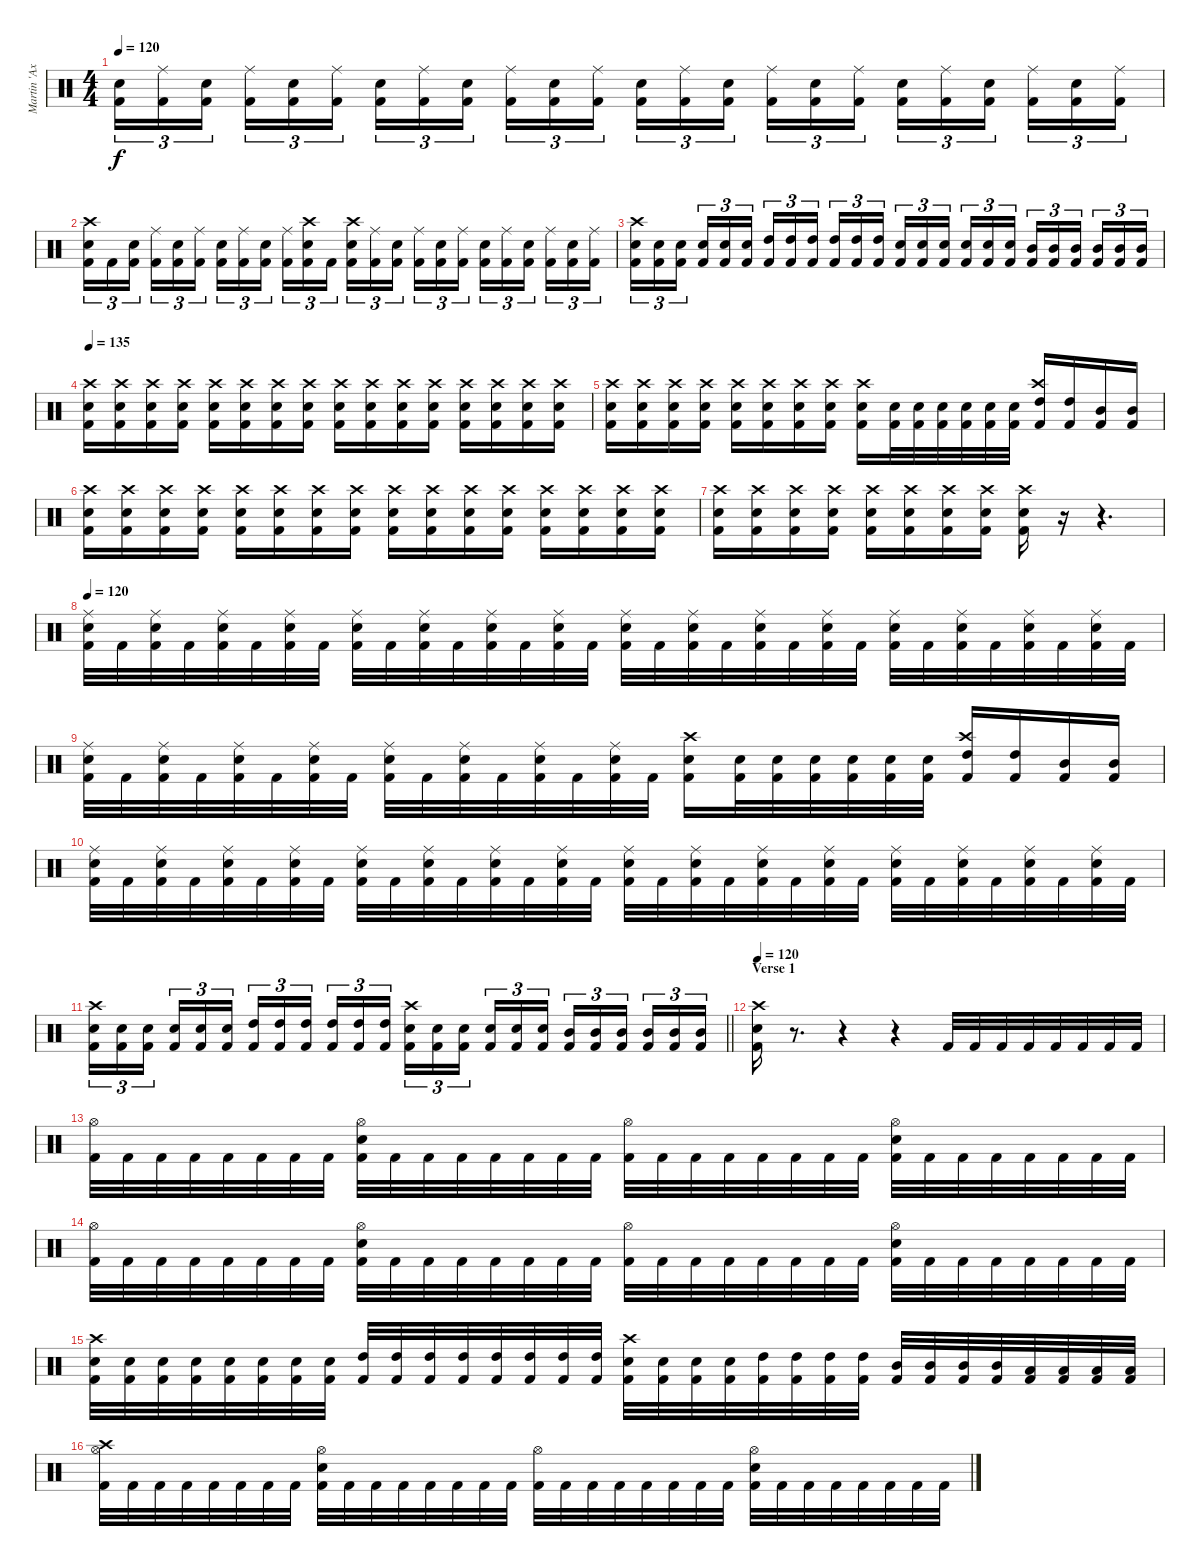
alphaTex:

\track ("Martin 'Axe' Axenrot" "Martin 'Ax") {instrument percussion}
\staff {score}
\articulation defaults
\ts (4 4)
\tempo 120
\clef neutral
\ks c
("Snare (hit) 2" "Kick (hit) 2").16{tu (3 2) dy f} ("Ride (middle)" "Kick (hit) 2").16{tu (3 2)} ("Snare (hit) 2" "Kick (hit) 2").16{tu (3 2) beam splitsecondary} ("Ride (middle)" "Kick (hit) 2").16{tu (3 2)} ("Snare (hit) 2" "Kick (hit) 2").16{tu (3 2)} ("Ride (middle)" "Kick (hit) 2").16{tu (3 2)} ("Snare (hit) 2" "Kick (hit) 2").16{tu (3 2)} ("Ride (middle)" "Kick (hit) 2").16{tu (3 2)} ("Snare (hit) 2" "Kick (hit) 2").16{tu (3 2) beam splitsecondary} ("Ride (middle)" "Kick (hit) 2").16{tu (3 2)} ("Snare (hit) 2" "Kick (hit) 2").16{tu (3 2)} ("Ride (middle)" "Kick (hit) 2").16{tu (3 2)} ("Snare (hit) 2" "Kick (hit) 2").16{tu (3 2)} ("Ride (middle)" "Kick (hit) 2").16{tu (3 2)} ("Snare (hit) 2" "Kick (hit) 2").16{tu (3 2) beam splitsecondary} ("Ride (middle)" "Kick (hit) 2").16{tu (3 2)} ("Snare (hit) 2" "Kick (hit) 2").16{tu (3 2)} ("Ride (middle)" "Kick (hit) 2").16{tu (3 2)} ("Snare (hit) 2" "Kick (hit) 2").16{tu (3 2)} ("Ride (middle)" "Kick (hit) 2").16{tu (3 2)} ("Snare (hit) 2" "Kick (hit) 2").16{tu (3 2) beam splitsecondary} ("Ride (middle)" "Kick (hit) 2").16{tu (3 2)} ("Snare (hit) 2" "Kick (hit) 2").16{tu (3 2)} ("Ride (middle)" "Kick (hit) 2").16{tu (3 2)} |
("Crash high (hit)" "Snare (hit) 2" "Kick (hit) 2").16{tu (3 2)} "Kick (hit) 2".16{tu (3 2)} ("Snare (hit) 2" "Kick (hit) 2").16{tu (3 2) beam splitsecondary} ("Ride (middle)" "Kick (hit) 2").16{tu (3 2)} ("Snare (hit) 2" "Kick (hit) 2").16{tu (3 2)} ("Ride (middle)" "Kick (hit) 2").16{tu (3 2)} ("Snare (hit) 2" "Kick (hit) 2").16{tu (3 2)} ("Ride (middle)" "Kick (hit) 2").16{tu (3 2)} ("Snare (hit) 2" "Kick (hit) 2").16{tu (3 2) beam splitsecondary} ("Ride (middle)" "Kick (hit) 2").16{tu (3 2)} ("Crash high (hit)" "Snare (hit) 2" "Kick (hit) 2").16{tu (3 2)} "Kick (hit) 2".16{tu (3 2)} ("Crash high (hit)" "Snare (hit) 2" "Kick (hit) 2").16{tu (3 2)} ("Ride (middle)" "Kick (hit) 2").16{tu (3 2)} ("Snare (hit) 2" "Kick (hit) 2").16{tu (3 2) beam splitsecondary} ("Ride (middle)" "Kick (hit) 2").16{tu (3 2)} ("Snare (hit) 2" "Kick (hit) 2").16{tu (3 2)} ("Ride (middle)" "Kick (hit) 2").16{tu (3 2)} ("Snare (hit) 2" "Kick (hit) 2").16{tu (3 2)} ("Ride (middle)" "Kick (hit) 2").16{tu (3 2)} ("Snare (hit) 2" "Kick (hit) 2").16{tu (3 2) beam splitsecondary} ("Ride (middle)" "Kick (hit) 2").16{tu (3 2)} ("Snare (hit) 2" "Kick (hit) 2").16{tu (3 2)} ("Ride (middle)" "Kick (hit) 2").16{tu (3 2)} |
("Crash high (hit)" "Snare (hit) 2" "Kick (hit) 2").16{tu (3 2)} ("Snare (hit) 2" "Kick (hit) 2").16{tu (3 2)} ("Snare (hit) 2" "Kick (hit) 2").16{tu (3 2) beam splitsecondary} ("Snare (hit) 2" "Kick (hit) 2").16{tu (3 2)} ("Snare (hit) 2" "Kick (hit) 2").16{tu (3 2)} ("Snare (hit) 2" "Kick (hit) 2").16{tu (3 2)} ("High Tom (hit)" "Kick (hit) 2").16{tu (3 2)} ("High Tom (hit)" "Kick (hit) 2").16{tu (3 2)} ("High Tom (hit)" "Kick (hit) 2").16{tu (3 2) beam splitsecondary} ("High Tom (hit)" "Kick (hit) 2").16{tu (3 2)} ("High Tom (hit)" "Kick (hit) 2").16{tu (3 2)} ("High Tom (hit)" "Kick (hit) 2").16{tu (3 2)} ("Snare (hit) 2" "Kick (hit) 2").16{tu (3 2)} ("Snare (hit) 2" "Kick (hit) 2").16{tu (3 2)} ("Snare (hit) 2" "Kick (hit) 2").16{tu (3 2) beam splitsecondary} ("Snare (hit) 2" "Kick (hit) 2").16{tu (3 2)} ("Snare (hit) 2" "Kick (hit) 2").16{tu (3 2)} ("Snare (hit) 2" "Kick (hit) 2").16{tu (3 2)} ("Mid Tom (hit)" "Kick (hit) 2").16{tu (3 2)} ("Mid Tom (hit)" "Kick (hit) 2").16{tu (3 2)} ("Mid Tom (hit)" "Kick (hit) 2").16{tu (3 2) beam splitsecondary} ("Mid Tom (hit)" "Kick (hit) 2").16{tu (3 2)} ("Mid Tom (hit)" "Kick (hit) 2").16{tu (3 2)} ("Mid Tom (hit)" "Kick (hit) 2").16{tu (3 2)} |
\tempo 135
("Crash high (hit)" "Snare (hit) 2" "Kick (hit) 2").16 ("Crash high (hit)" "Snare (hit) 2" "Kick (hit) 2").16 ("Crash high (hit)" "Snare (hit) 2" "Kick (hit) 2").16 ("Crash high (hit)" "Snare (hit) 2" "Kick (hit) 2").16 ("Crash high (hit)" "Snare (hit) 2" "Kick (hit) 2").16 ("Crash high (hit)" "Snare (hit) 2" "Kick (hit) 2").16 ("Crash high (hit)" "Snare (hit) 2" "Kick (hit) 2").16 ("Crash high (hit)" "Snare (hit) 2" "Kick (hit) 2").16 ("Crash high (hit)" "Snare (hit) 2" "Kick (hit) 2").16 ("Crash high (hit)" "Snare (hit) 2" "Kick (hit) 2").16 ("Crash high (hit)" "Snare (hit) 2" "Kick (hit) 2").16 ("Crash high (hit)" "Snare (hit) 2" "Kick (hit) 2").16 ("Crash high (hit)" "Snare (hit) 2" "Kick (hit) 2").16 ("Crash high (hit)" "Snare (hit) 2" "Kick (hit) 2").16 ("Crash high (hit)" "Snare (hit) 2" "Kick (hit) 2").16 ("Crash high (hit)" "Snare (hit) 2" "Kick (hit) 2").16 |
("Crash high (hit)" "Snare (hit) 2" "Kick (hit) 2").16 ("Crash high (hit)" "Snare (hit) 2" "Kick (hit) 2").16 ("Crash high (hit)" "Snare (hit) 2" "Kick (hit) 2").16 ("Crash high (hit)" "Snare (hit) 2" "Kick (hit) 2").16 ("Crash high (hit)" "Snare (hit) 2" "Kick (hit) 2").16 ("Crash high (hit)" "Snare (hit) 2" "Kick (hit) 2").16 ("Crash high (hit)" "Snare (hit) 2" "Kick (hit) 2").16 ("Crash high (hit)" "Snare (hit) 2" "Kick (hit) 2").16 ("Crash high (hit)" "Snare (hit) 2" "Kick (hit) 2").16 ("Snare (hit) 2" "Kick (hit) 2").32 ("Snare (hit) 2" "Kick (hit) 2").32 ("Snare (hit) 2" "Kick (hit) 2").32 ("Snare (hit) 2" "Kick (hit) 2").32 ("Snare (hit) 2" "Kick (hit) 2").32 ("Snare (hit) 2" "Kick (hit) 2").32 ("Crash high (hit)" "High Tom (hit)" "Kick (hit) 2").16 ("High Tom (hit)" "Kick (hit) 2").16 ("Mid Tom (hit)" "Kick (hit) 2").16 ("Mid Tom (hit)" "Kick (hit) 2").16 |
("Crash high (hit)" "Snare (hit) 2" "Kick (hit) 2").16 ("Crash high (hit)" "Snare (hit) 2" "Kick (hit) 2").16 ("Crash high (hit)" "Snare (hit) 2" "Kick (hit) 2").16 ("Crash high (hit)" "Snare (hit) 2" "Kick (hit) 2").16 ("Crash high (hit)" "Snare (hit) 2" "Kick (hit) 2").16 ("Crash high (hit)" "Snare (hit) 2" "Kick (hit) 2").16 ("Crash high (hit)" "Snare (hit) 2" "Kick (hit) 2").16 ("Crash high (hit)" "Snare (hit) 2" "Kick (hit) 2").16 ("Crash high (hit)" "Snare (hit) 2" "Kick (hit) 2").16 ("Crash high (hit)" "Snare (hit) 2" "Kick (hit) 2").16 ("Crash high (hit)" "Snare (hit) 2" "Kick (hit) 2").16 ("Crash high (hit)" "Snare (hit) 2" "Kick (hit) 2").16 ("Crash high (hit)" "Snare (hit) 2" "Kick (hit) 2").16 ("Crash high (hit)" "Snare (hit) 2" "Kick (hit) 2").16 ("Crash high (hit)" "Snare (hit) 2" "Kick (hit) 2").16 ("Crash high (hit)" "Snare (hit) 2" "Kick (hit) 2").16 |
("Crash high (hit)" "Snare (hit) 2" "Kick (hit) 2").16 ("Crash high (hit)" "Snare (hit) 2" "Kick (hit) 2").16 ("Crash high (hit)" "Snare (hit) 2" "Kick (hit) 2").16 ("Crash high (hit)" "Snare (hit) 2" "Kick (hit) 2").16 ("Crash high (hit)" "Snare (hit) 2" "Kick (hit) 2").16 ("Crash high (hit)" "Snare (hit) 2" "Kick (hit) 2").16 ("Crash high (hit)" "Snare (hit) 2" "Kick (hit) 2").16 ("Crash high (hit)" "Snare (hit) 2" "Kick (hit) 2").16 ("Crash high (hit)" "Snare (hit) 2" "Kick (hit) 2").16 r.16 r.4{d} |
\tempo 120
("Ride (middle)" "Snare (hit) 2" "Kick (hit) 2").32 "Kick (hit) 2".32 ("Ride (middle)" "Snare (hit) 2" "Kick (hit) 2").32 "Kick (hit) 2".32 ("Ride (middle)" "Snare (hit) 2" "Kick (hit) 2").32 "Kick (hit) 2".32 ("Ride (middle)" "Snare (hit) 2" "Kick (hit) 2").32 "Kick (hit) 2".32 ("Ride (middle)" "Snare (hit) 2" "Kick (hit) 2").32 "Kick (hit) 2".32 ("Ride (middle)" "Snare (hit) 2" "Kick (hit) 2").32 "Kick (hit) 2".32 ("Ride (middle)" "Snare (hit) 2" "Kick (hit) 2").32 "Kick (hit) 2".32 ("Ride (middle)" "Snare (hit) 2" "Kick (hit) 2").32 "Kick (hit) 2".32 ("Ride (middle)" "Snare (hit) 2" "Kick (hit) 2").32 "Kick (hit) 2".32 ("Ride (middle)" "Snare (hit) 2" "Kick (hit) 2").32 "Kick (hit) 2".32 ("Ride (middle)" "Snare (hit) 2" "Kick (hit) 2").32 "Kick (hit) 2".32 ("Ride (middle)" "Snare (hit) 2" "Kick (hit) 2").32 "Kick (hit) 2".32 ("Ride (middle)" "Snare (hit) 2" "Kick (hit) 2").32 "Kick (hit) 2".32 ("Ride (middle)" "Snare (hit) 2" "Kick (hit) 2").32 "Kick (hit) 2".32 ("Ride (middle)" "Snare (hit) 2" "Kick (hit) 2").32 "Kick (hit) 2".32 ("Ride (middle)" "Snare (hit) 2" "Kick (hit) 2").32 "Kick (hit) 2".32 |
("Ride (middle)" "Snare (hit) 2" "Kick (hit) 2").32 "Kick (hit) 2".32 ("Ride (middle)" "Snare (hit) 2" "Kick (hit) 2").32 "Kick (hit) 2".32 ("Ride (middle)" "Snare (hit) 2" "Kick (hit) 2").32 "Kick (hit) 2".32 ("Ride (middle)" "Snare (hit) 2" "Kick (hit) 2").32 "Kick (hit) 2".32 ("Ride (middle)" "Snare (hit) 2" "Kick (hit) 2").32 "Kick (hit) 2".32 ("Ride (middle)" "Snare (hit) 2" "Kick (hit) 2").32 "Kick (hit) 2".32 ("Ride (middle)" "Snare (hit) 2" "Kick (hit) 2").32 "Kick (hit) 2".32 ("Ride (middle)" "Snare (hit) 2" "Kick (hit) 2").32 "Kick (hit) 2".32 ("Crash high (hit)" "Snare (hit) 2" "Kick (hit) 2").16 ("Snare (hit) 2" "Kick (hit) 2").32 ("Snare (hit) 2" "Kick (hit) 2").32 ("Snare (hit) 2" "Kick (hit) 2").32 ("Snare (hit) 2" "Kick (hit) 2").32 ("Snare (hit) 2" "Kick (hit) 2").32 ("Snare (hit) 2" "Kick (hit) 2").32 ("Crash high (hit)" "High Tom (hit)" "Kick (hit) 2").16 ("High Tom (hit)" "Kick (hit) 2").16 ("Mid Tom (hit)" "Kick (hit) 2").16 ("Mid Tom (hit)" "Kick (hit) 2").16 |
("Ride (middle)" "Snare (hit) 2" "Kick (hit) 2").32 "Kick (hit) 2".32 ("Ride (middle)" "Snare (hit) 2" "Kick (hit) 2").32 "Kick (hit) 2".32 ("Ride (middle)" "Snare (hit) 2" "Kick (hit) 2").32 "Kick (hit) 2".32 ("Ride (middle)" "Snare (hit) 2" "Kick (hit) 2").32 "Kick (hit) 2".32 ("Ride (middle)" "Snare (hit) 2" "Kick (hit) 2").32 "Kick (hit) 2".32 ("Ride (middle)" "Snare (hit) 2" "Kick (hit) 2").32 "Kick (hit) 2".32 ("Ride (middle)" "Snare (hit) 2" "Kick (hit) 2").32 "Kick (hit) 2".32 ("Ride (middle)" "Snare (hit) 2" "Kick (hit) 2").32 "Kick (hit) 2".32 ("Ride (middle)" "Snare (hit) 2" "Kick (hit) 2").32 "Kick (hit) 2".32 ("Ride (middle)" "Snare (hit) 2" "Kick (hit) 2").32 "Kick (hit) 2".32 ("Ride (middle)" "Snare (hit) 2" "Kick (hit) 2").32 "Kick (hit) 2".32 ("Ride (middle)" "Snare (hit) 2" "Kick (hit) 2").32 "Kick (hit) 2".32 ("Ride (middle)" "Snare (hit) 2" "Kick (hit) 2").32 "Kick (hit) 2".32 ("Ride (middle)" "Snare (hit) 2" "Kick (hit) 2").32 "Kick (hit) 2".32 ("Ride (middle)" "Snare (hit) 2" "Kick (hit) 2").32 "Kick (hit) 2".32 ("Ride (middle)" "Snare (hit) 2" "Kick (hit) 2").32 "Kick (hit) 2".32 |
\barLineRight lightlight
("Crash high (hit)" "Snare (hit) 2" "Kick (hit) 2").16{tu (3 2)} ("Snare (hit) 2" "Kick (hit) 2").16{tu (3 2)} ("Snare (hit) 2" "Kick (hit) 2").16{tu (3 2) beam splitsecondary} ("Snare (hit) 2" "Kick (hit) 2").16{tu (3 2)} ("Snare (hit) 2" "Kick (hit) 2").16{tu (3 2)} ("Snare (hit) 2" "Kick (hit) 2").16{tu (3 2)} ("High Tom (hit)" "Kick (hit) 2").16{tu (3 2)} ("High Tom (hit)" "Kick (hit) 2").16{tu (3 2)} ("High Tom (hit)" "Kick (hit) 2").16{tu (3 2) beam splitsecondary} ("High Tom (hit)" "Kick (hit) 2").16{tu (3 2)} ("High Tom (hit)" "Kick (hit) 2").16{tu (3 2)} ("High Tom (hit)" "Kick (hit) 2").16{tu (3 2)} ("Crash high (hit)" "Snare (hit) 2" "Kick (hit) 2").16{tu (3 2)} ("Snare (hit) 2" "Kick (hit) 2").16{tu (3 2)} ("Snare (hit) 2" "Kick (hit) 2").16{tu (3 2) beam splitsecondary} ("Snare (hit) 2" "Kick (hit) 2").16{tu (3 2)} ("Snare (hit) 2" "Kick (hit) 2").16{tu (3 2)} ("Snare (hit) 2" "Kick (hit) 2").16{tu (3 2)} ("Mid Tom (hit)" "Kick (hit) 2").16{tu (3 2)} ("Mid Tom (hit)" "Kick (hit) 2").16{tu (3 2)} ("Mid Tom (hit)" "Kick (hit) 2").16{tu (3 2) beam splitsecondary} ("Mid Tom (hit)" "Kick (hit) 2").16{tu (3 2)} ("Mid Tom (hit)" "Kick (hit) 2").16{tu (3 2)} ("Mid Tom (hit)" "Kick (hit) 2").16{tu (3 2)} |
\section ("" "Verse 1")
\tempo 120
("Crash high (hit)" "Snare (hit) 2" "Kick (hit) 2").16 r.8{d} r.4 r.4 "Kick (hit) 2".32 "Kick (hit) 2".32 "Kick (hit) 2".32 "Kick (hit) 2".32 "Kick (hit) 2".32 "Kick (hit) 2".32 "Kick (hit) 2".32 "Kick (hit) 2".32 |
("Hi-Hat (open)" "Kick (hit) 2").32 "Kick (hit) 2".32 "Kick (hit) 2".32 "Kick (hit) 2".32 "Kick (hit) 2".32 "Kick (hit) 2".32 "Kick (hit) 2".32 "Kick (hit) 2".32 ("Snare (hit) 2" "Hi-Hat (open)" "Kick (hit) 2").32 "Kick (hit) 2".32 "Kick (hit) 2".32 "Kick (hit) 2".32 "Kick (hit) 2".32 "Kick (hit) 2".32 "Kick (hit) 2".32 "Kick (hit) 2".32 ("Hi-Hat (open)" "Kick (hit) 2").32 "Kick (hit) 2".32 "Kick (hit) 2".32 "Kick (hit) 2".32 "Kick (hit) 2".32 "Kick (hit) 2".32 "Kick (hit) 2".32 "Kick (hit) 2".32 ("Snare (hit) 2" "Hi-Hat (open)" "Kick (hit) 2").32 "Kick (hit) 2".32 "Kick (hit) 2".32 "Kick (hit) 2".32 "Kick (hit) 2".32 "Kick (hit) 2".32 "Kick (hit) 2".32 "Kick (hit) 2".32 |
("Hi-Hat (open)" "Kick (hit) 2").32 "Kick (hit) 2".32 "Kick (hit) 2".32 "Kick (hit) 2".32 "Kick (hit) 2".32 "Kick (hit) 2".32 "Kick (hit) 2".32 "Kick (hit) 2".32 ("Snare (hit) 2" "Hi-Hat (open)" "Kick (hit) 2").32 "Kick (hit) 2".32 "Kick (hit) 2".32 "Kick (hit) 2".32 "Kick (hit) 2".32 "Kick (hit) 2".32 "Kick (hit) 2".32 "Kick (hit) 2".32 ("Hi-Hat (open)" "Kick (hit) 2").32 "Kick (hit) 2".32 "Kick (hit) 2".32 "Kick (hit) 2".32 "Kick (hit) 2".32 "Kick (hit) 2".32 "Kick (hit) 2".32 "Kick (hit) 2".32 ("Snare (hit) 2" "Hi-Hat (open)" "Kick (hit) 2").32 "Kick (hit) 2".32 "Kick (hit) 2".32 "Kick (hit) 2".32 "Kick (hit) 2".32 "Kick (hit) 2".32 "Kick (hit) 2".32 "Kick (hit) 2".32 |
("Crash high (hit)" "Snare (hit) 2" "Kick (hit) 2").32 ("Snare (hit) 2" "Kick (hit) 2").32 ("Snare (hit) 2" "Kick (hit) 2").32 ("Snare (hit) 2" "Kick (hit) 2").32 ("Snare (hit) 2" "Kick (hit) 2").32 ("Snare (hit) 2" "Kick (hit) 2").32 ("Snare (hit) 2" "Kick (hit) 2").32 ("Snare (hit) 2" "Kick (hit) 2").32 ("High Tom (hit)" "Kick (hit) 2").32 ("High Tom (hit)" "Kick (hit) 2").32 ("High Tom (hit)" "Kick (hit) 2").32 ("High Tom (hit)" "Kick (hit) 2").32 ("High Tom (hit)" "Kick (hit) 2").32 ("High Tom (hit)" "Kick (hit) 2").32 ("High Tom (hit)" "Kick (hit) 2").32 ("High Tom (hit)" "Kick (hit) 2").32 ("Crash high (hit)" "Snare (hit) 2" "Kick (hit) 2").32 ("Snare (hit) 2" "Kick (hit) 2").32 ("Snare (hit) 2" "Kick (hit) 2").32 ("Snare (hit) 2" "Kick (hit) 2").32 ("High Tom (hit)" "Kick (hit) 2").32 ("High Tom (hit)" "Kick (hit) 2").32 ("High Tom (hit)" "Kick (hit) 2").32 ("High Tom (hit)" "Kick (hit) 2").32 ("Mid Tom (hit)" "Kick (hit) 2").32 ("Mid Tom (hit)" "Kick (hit) 2").32 ("Mid Tom (hit)" "Kick (hit) 2").32 ("Mid Tom (hit)" "Kick (hit) 2").32 ("Low Tom (hit)" "Kick (hit) 2").32 ("Low Tom (hit)" "Kick (hit) 2").32 ("Low Tom (hit)" "Kick (hit) 2").32 ("Low Tom (hit)" "Kick (hit) 2").32 |
("Crash high (hit)" "Hi-Hat (open)" "Kick (hit) 2").32 "Kick (hit) 2".32 "Kick (hit) 2".32 "Kick (hit) 2".32 "Kick (hit) 2".32 "Kick (hit) 2".32 "Kick (hit) 2".32 "Kick (hit) 2".32 ("Snare (hit) 2" "Hi-Hat (open)" "Kick (hit) 2").32 "Kick (hit) 2".32 "Kick (hit) 2".32 "Kick (hit) 2".32 "Kick (hit) 2".32 "Kick (hit) 2".32 "Kick (hit) 2".32 "Kick (hit) 2".32 ("Hi-Hat (open)" "Kick (hit) 2").32 "Kick (hit) 2".32 "Kick (hit) 2".32 "Kick (hit) 2".32 "Kick (hit) 2".32 "Kick (hit) 2".32 "Kick (hit) 2".32 "Kick (hit) 2".32 ("Snare (hit) 2" "Hi-Hat (open)" "Kick (hit) 2").32 "Kick (hit) 2".32 "Kick (hit) 2".32 "Kick (hit) 2".32 "Kick (hit) 2".32 "Kick (hit) 2".32 "Kick (hit) 2".32 "Kick (hit) 2".32
